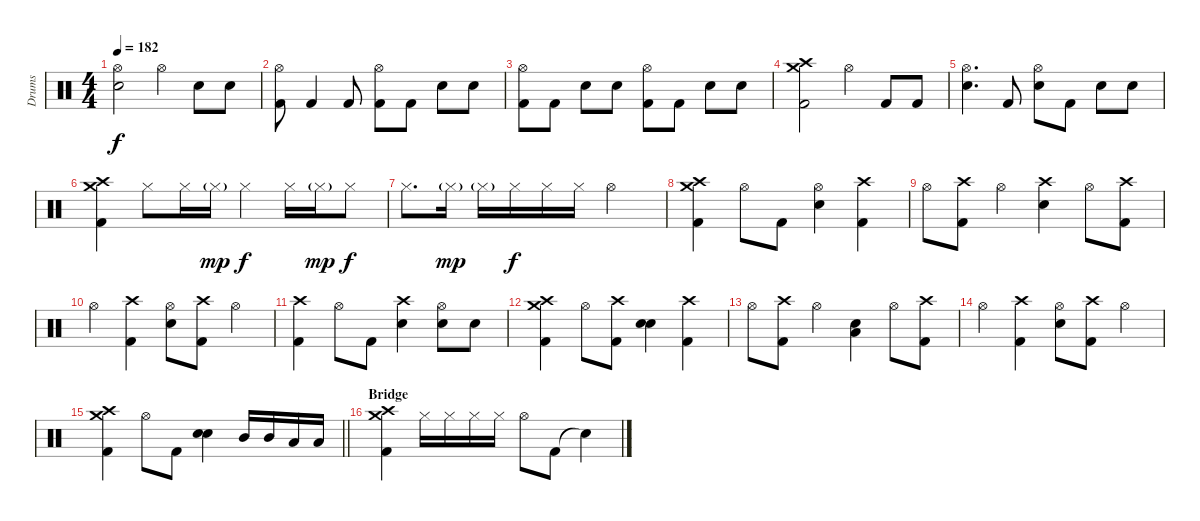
\track ("Drums" "Drums") {instrument percussion}
\staff {score}
\articulation defaults
\ts (4 4)
\tempo 182
\clef neutral
\ks c
("Hi-Hat (open)" "Electric Snare (hit)").2{dy f} "Hi-Hat (open)".4 "Electric Snare (hit)".8 "Electric Snare (hit)".8 |
("Hi-Hat (open)" "Kick (hit) 2").8 "Kick (hit) 2".4 "Kick (hit) 2".8 ("Hi-Hat (open)" "Kick (hit) 2").8 "Kick (hit) 2".8 "Electric Snare (hit)".8 "Electric Snare (hit)".8 |
("Hi-Hat (open)" "Kick (hit) 2").8 "Kick (hit) 2".8 "Electric Snare (hit)".8 "Electric Snare (hit)".8 ("Hi-Hat (open)" "Kick (hit) 2").8 "Kick (hit) 2".8 "Electric Snare (hit)".8 "Electric Snare (hit)".8 |
("Crash medium (hit)" "Crash high (hit)" "Kick (hit) 2").2 "Hi-Hat (open)".4 "Kick (hit) 2".8 "Kick (hit) 2".8 |
("Hi-Hat (open)" "Electric Snare (hit)").4{d} "Kick (hit) 2".8 ("Hi-Hat (open)" "Electric Snare (hit)").8 "Kick (hit) 2".8 "Electric Snare (hit)".8 "Electric Snare (hit)".8 |
("Crash medium (hit)" "Crash high (hit)" "Kick (hit) 2").4 "Hi-Hat (closed)".8 "Hi-Hat (closed)".16 "Hi-Hat (closed)"{g}.16{dy mp} "Hi-Hat (closed)".4{dy f} "Hi-Hat (closed)".16 "Hi-Hat (closed)"{g}.16{dy mp} "Hi-Hat (closed)".8{dy f} |
"Hi-Hat (closed)".8{d} "Hi-Hat (closed)"{g}.16{dy mp} "Hi-Hat (closed)"{g}.16 "Hi-Hat (closed)".16{dy f} "Hi-Hat (closed)".16 "Hi-Hat (closed)".16 "Hi-Hat (open)".2 |
("Crash medium (hit)" "Crash high (hit)" "Kick (hit) 2").4 "Hi-Hat (open)".8 "Kick (hit) 2".8 ("Hi-Hat (open)" "Electric Snare (hit)").4 ("Crash high (hit)" "Kick (hit) 2").4 |
"Hi-Hat (open)".8 ("Crash high (hit)" "Kick (hit) 2").8 "Hi-Hat (open)".4 ("Crash high (hit)" "Electric Snare (hit)").4 "Hi-Hat (open)".8 ("Crash high (hit)" "Kick (hit) 2").8 |
"Hi-Hat (open)".4 ("Crash high (hit)" "Kick (hit) 2").4 ("Hi-Hat (open)" "Electric Snare (hit)").8 ("Crash high (hit)" "Kick (hit) 2").8 "Hi-Hat (open)".4 |
("Crash high (hit)" "Kick (hit) 2").4 "Hi-Hat (open)".8 "Kick (hit) 2".8 ("Crash high (hit)" "Electric Snare (hit)").4 ("Hi-Hat (open)" "Electric Snare (hit)").8 "Electric Snare (hit)".8 |
("Crash medium (hit)" "Crash high (hit)" "Kick (hit) 2").4 "Hi-Hat (open)".8 ("Crash high (hit)" "Kick (hit) 2").8 ("Electric Snare (hit)" "Electric Snare (hit)").4{bu 120} ("Crash high (hit)" "Kick (hit) 2").4 |
"Hi-Hat (open)".8 ("Crash high (hit)" "Kick (hit) 2").8 "Hi-Hat (open)".4 ("Low Tom (hit)" "Electric Snare (hit)").4{bu 120} "Hi-Hat (open)".8 ("Crash high (hit)" "Kick (hit) 2").8 |
"Hi-Hat (open)".4 ("Crash high (hit)" "Kick (hit) 2").4 ("Hi-Hat (open)" "Electric Snare (hit)").8 ("Crash high (hit)" "Kick (hit) 2").8 "Hi-Hat (open)".4 |
\barLineRight lightlight
("Crash medium (hit)" "Crash high (hit)" "Kick (hit) 2").4 "Hi-Hat (open)".8 "Kick (hit) 2".8 ("Electric Snare (hit)" "Electric Snare (hit)").4{bu 120} "Mid Tom (hit)".16 "Mid Tom (hit)".16 "Low Tom (hit)".16 "Low Tom (hit)".16 |
\section ("" "Bridge")
("Crash medium (hit)" "Crash high (hit)" "Kick (hit) 2").4 "Hi-Hat (closed)".16 "Hi-Hat (closed)".16 "Hi-Hat (closed)".16 "Hi-Hat (closed)".16 "Hi-Hat (open)".8 "Kick (hit) 2".8 "Snare (hit)"{t}.4
